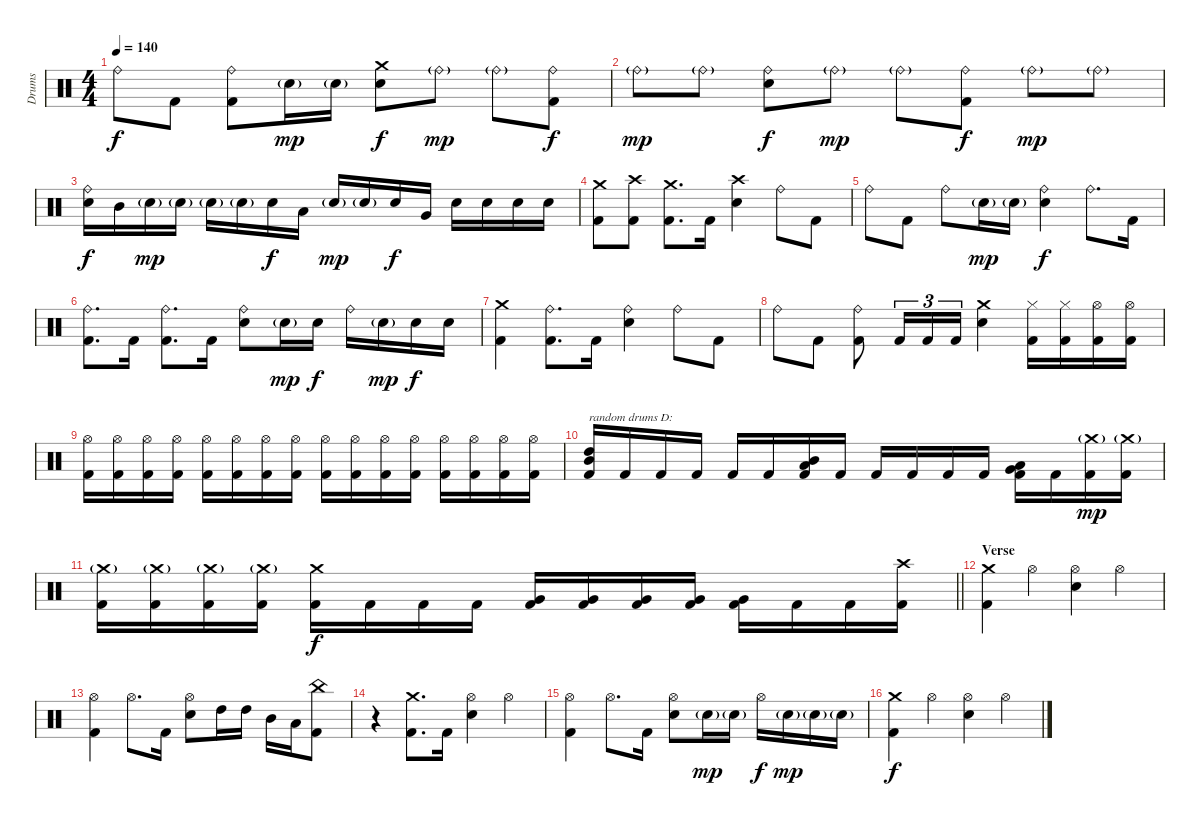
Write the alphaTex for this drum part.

\track ("Drums" "Drums") {instrument percussion}
\staff {score}
\articulation defaults
\ts (4 4)
\tempo 140
\clef neutral
\ks c "Ride (bell)".8{dy f} "Kick (hit) 2".8
("Ride (bell)" "Kick (hit) 2").8 "Electric Snare (hit)"{g}.16{dy mp} "Electric Snare (hit)"{g}.16 ("Crash medium (hit)" "Electric Snare (hit)").8{dy f} "Ride (bell)"{g}.8{dy mp} "Ride (bell)"{g}.8 ("Ride (bell)" "Kick (hit) 2").8{dy f} |
"Ride (bell)"{g}.8{dy mp} "Ride (bell)"{g}.8 ("Ride (bell)" "Electric Snare (hit)").8{dy f} "Ride (bell)"{g}.8{dy mp} "Ride (bell)"{g}.8 ("Ride (bell)" "Kick (hit) 2").8{dy f} "Ride (bell)"{g}.8{dy mp} "Ride (bell)"{g}.8 |
("Ride (bell)" "Electric Snare (hit)").16{dy f} "Mid Tom (hit)".16 "Electric Snare (hit)"{g}.16{dy mp} "Electric Snare (hit)"{g}.16 "Electric Snare (hit)"{g}.16 "Electric Snare (hit)"{g}.16 "Electric Snare (hit)".16{dy f} "Low Tom (hit)".16 "Electric Snare (hit)"{g}.16{dy mp} "Electric Snare (hit)"{g}.16 "Electric Snare (hit)".16{dy f} "Very Low Tom (hit)".16 "Electric Snare (hit)".16 "Electric Snare (hit)".16 "Electric Snare (hit)".16 "Electric Snare (hit)".16 |
("Crash medium (hit)" "Kick (hit) 2").8 ("Crash high (hit)" "Kick (hit) 2").8 ("Crash medium (hit)" "Kick (hit) 2").8{d} "Kick (hit) 2".16 ("Crash high (hit)" "Electric Snare (hit)").4 "Ride (bell)".8 "Kick (hit) 2".8 |
"Ride (bell)".8 "Kick (hit) 2".8 "Ride (bell)".8 "Electric Snare (hit)"{g}.16{dy mp} "Electric Snare (hit)"{g}.16 ("Ride (bell)" "Electric Snare (hit)").4{dy f} "Ride (bell)".8{d} "Kick (hit) 2".16 |
("Ride (bell)" "Kick (hit) 2").8{d} "Kick (hit) 2".16 ("Ride (bell)" "Kick (hit) 2").8{d} "Kick (hit) 2".16 ("Ride (bell)" "Electric Snare (hit)").8 "Electric Snare (hit)"{g}.16{dy mp} "Electric Snare (hit)".16{dy f} "Ride (bell)".16 "Electric Snare (hit)"{g}.16{dy mp} "Electric Snare (hit)".16{dy f} "Electric Snare (hit)".16 |
("Crash medium (hit)" "Kick (hit) 2").4 ("Ride (bell)" "Kick (hit) 2").8{d} "Kick (hit) 2".16 ("Ride (bell)" "Electric Snare (hit)").4 "Ride (bell)".8 "Kick (hit) 2".8 |
"Ride (bell)".8 "Kick (hit) 2".8 ("Ride (bell)" "Kick (hit) 2").8 "Kick (hit) 2".16{tu (3 2)} "Kick (hit) 2".16{tu (3 2)} "Kick (hit) 2".16{tu (3 2)} ("Crash medium (hit)" "Electric Snare (hit)").4 ("Hi-Hat (closed)" "Kick (hit) 2").16 ("Hi-Hat (closed)" "Kick (hit) 2").16 ("Hi-Hat (open)" "Kick (hit) 2").16 ("Hi-Hat (open)" "Kick (hit) 2").16 |
("Hi-Hat (open)" "Kick (hit) 2").16 ("Hi-Hat (open)" "Kick (hit) 2").16 ("Hi-Hat (open)" "Kick (hit) 2").16 ("Hi-Hat (open)" "Kick (hit) 2").16 ("Hi-Hat (open)" "Kick (hit) 2").16 ("Hi-Hat (open)" "Kick (hit) 2").16 ("Hi-Hat (open)" "Kick (hit) 2").16 ("Hi-Hat (open)" "Kick (hit) 2").16 ("Hi-Hat (open)" "Kick (hit) 2").16 ("Hi-Hat (open)" "Kick (hit) 2").16 ("Hi-Hat (open)" "Kick (hit) 2").16 ("Hi-Hat (open)" "Kick (hit) 2").16 ("Hi-Hat (open)" "Kick (hit) 2").16 ("Hi-Hat (open)" "Kick (hit) 2").16 ("Hi-Hat (open)" "Kick (hit) 2").16 ("Hi-Hat (open)" "Kick (hit) 2").16 |
("High Tom (hit)" "Mid Tom (hit)" "Kick (hit) 2").16{txt "random drums D:"} "Kick (hit) 2".16 "Kick (hit) 2".16 "Kick (hit) 2".16 "Kick (hit) 2".16 "Kick (hit) 2".16 ("Mid Tom (hit)" "Low Tom (hit)" "Kick (hit) 2").16 "Kick (hit) 2".16 "Kick (hit) 2".16 "Kick (hit) 2".16 "Kick (hit) 2".16 "Kick (hit) 2".16 ("Low Tom (hit)" "Very Low Tom (hit)" "Kick (hit) 2").16 "Kick (hit) 2".16 ("Crash medium (hit)"{g} "Kick (hit) 2").16{dy mp} ("Crash medium (hit)"{g} "Kick (hit) 2").16 |
\barLineRight lightlight
("Crash medium (hit)"{g} "Kick (hit) 2").16 ("Crash medium (hit)"{g} "Kick (hit) 2").16 ("Crash medium (hit)"{g} "Kick (hit) 2").16 ("Crash medium (hit)"{g} "Kick (hit) 2").16 ("Crash medium (hit)" "Kick (hit) 2").16{dy f} "Kick (hit) 2".16 "Kick (hit) 2".16 "Kick (hit) 2".16 ("Very Low Tom (hit)" "Kick (hit) 2").16 ("Very Low Tom (hit)" "Kick (hit) 2").16 ("Very Low Tom (hit)" "Kick (hit) 2").16 ("Very Low Tom (hit)" "Kick (hit) 2").16 ("Very Low Tom (hit)" "Kick (hit) 2").16 "Kick (hit) 2".16 "Kick (hit) 2".16 ("Crash high (hit)" "Kick (hit) 2").16 |
\section ("" "Verse")
("Crash medium (hit)" "Kick (hit) 2").4 "Hi-Hat (open)".4 ("Hi-Hat (open)" "Electric Snare (hit)").4 "Hi-Hat (open)".4 |
("Hi-Hat (open)" "Kick (hit) 2").4 "Hi-Hat (open)".8{d} "Kick (hit) 2".16 ("Hi-Hat (open)" "Electric Snare (hit)").8 "High Tom (hit)".16 "High Tom (hit)".16 "Mid Tom (hit)".16 "Low Tom (hit)".16 ("China (hit)" "Kick (hit) 2").8 |
r.4 ("Crash medium (hit)" "Kick (hit) 2").8{d} "Kick (hit) 2".16 ("Hi-Hat (open)" "Electric Snare (hit)").4 "Hi-Hat (open)".4 |
("Hi-Hat (open)" "Kick (hit) 2").4 "Hi-Hat (open)".8{d} "Kick (hit) 2".16 ("Hi-Hat (open)" "Electric Snare (hit)").8 "Electric Snare (hit)"{g}.16{dy mp} "Electric Snare (hit)"{g}.16 "Hi-Hat (open)".16{dy f} "Electric Snare (hit)"{g}.16{dy mp} "Electric Snare (hit)"{g}.16 "Electric Snare (hit)"{g}.16 |
("Crash medium (hit)" "Kick (hit) 2").4{dy f} "Hi-Hat (open)".4 ("Hi-Hat (open)" "Electric Snare (hit)").4 "Hi-Hat (open)".4
